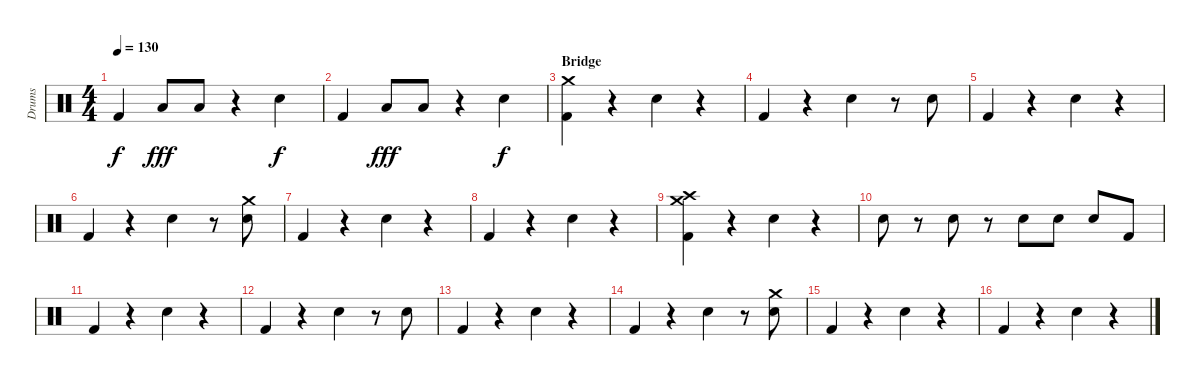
\track ("Drums" "Drums") {instrument percussion}
\staff {score}
\articulation defaults
\ts (4 4)
\tempo 130
\clef neutral
\ks c "Kick (hit) 2".4{dy f} "Low Floor Tom (hit)".8{dy fff} "Low Floor Tom (hit)".8
r.4 "Electric Snare (hit)".4{dy f} |
"Kick (hit) 2".4 "Low Floor Tom (hit)".8{dy fff} "Low Floor Tom (hit)".8 r.4 "Electric Snare (hit)".4{dy f} |
\section ("" "Bridge")
("Crash medium (hit)" "Kick (hit) 2").4 r.4 "Electric Snare (hit)".4 r.4 |
"Kick (hit) 2".4 r.4 "Electric Snare (hit)".4 r.8 "Electric Snare (hit)".8 |
"Kick (hit) 2".4 r.4 "Electric Snare (hit)".4 r.4 |
"Kick (hit) 2".4 r.4 "Electric Snare (hit)".4 r.8 ("Crash medium (hit)" "Electric Snare (hit)").8 |
"Kick (hit) 2".4 r.4 "Electric Snare (hit)".4 r.4 |
"Kick (hit) 2".4 r.4 "Electric Snare (hit)".4 r.4 |
("Crash medium (hit)" "Crash high (hit)" "Kick (hit) 2").4 r.4 "Electric Snare (hit)".4 r.4 |
"Electric Snare (hit)".8 r.8 "Electric Snare (hit)".8 r.8 "Electric Snare (hit)".8 "Electric Snare (hit)".8 "Electric Snare (hit)".8 "Kick (hit) 2".8 |
"Kick (hit) 2".4 r.4 "Electric Snare (hit)".4 r.4 |
"Kick (hit) 2".4 r.4 "Electric Snare (hit)".4 r.8 "Electric Snare (hit)".8 |
"Kick (hit) 2".4 r.4 "Electric Snare (hit)".4 r.4 |
"Kick (hit) 2".4 r.4 "Electric Snare (hit)".4 r.8 ("Crash medium (hit)" "Electric Snare (hit)").8 |
"Kick (hit) 2".4 r.4 "Electric Snare (hit)".4 r.4 |
"Kick (hit) 2".4 r.4 "Electric Snare (hit)".4 r.4
